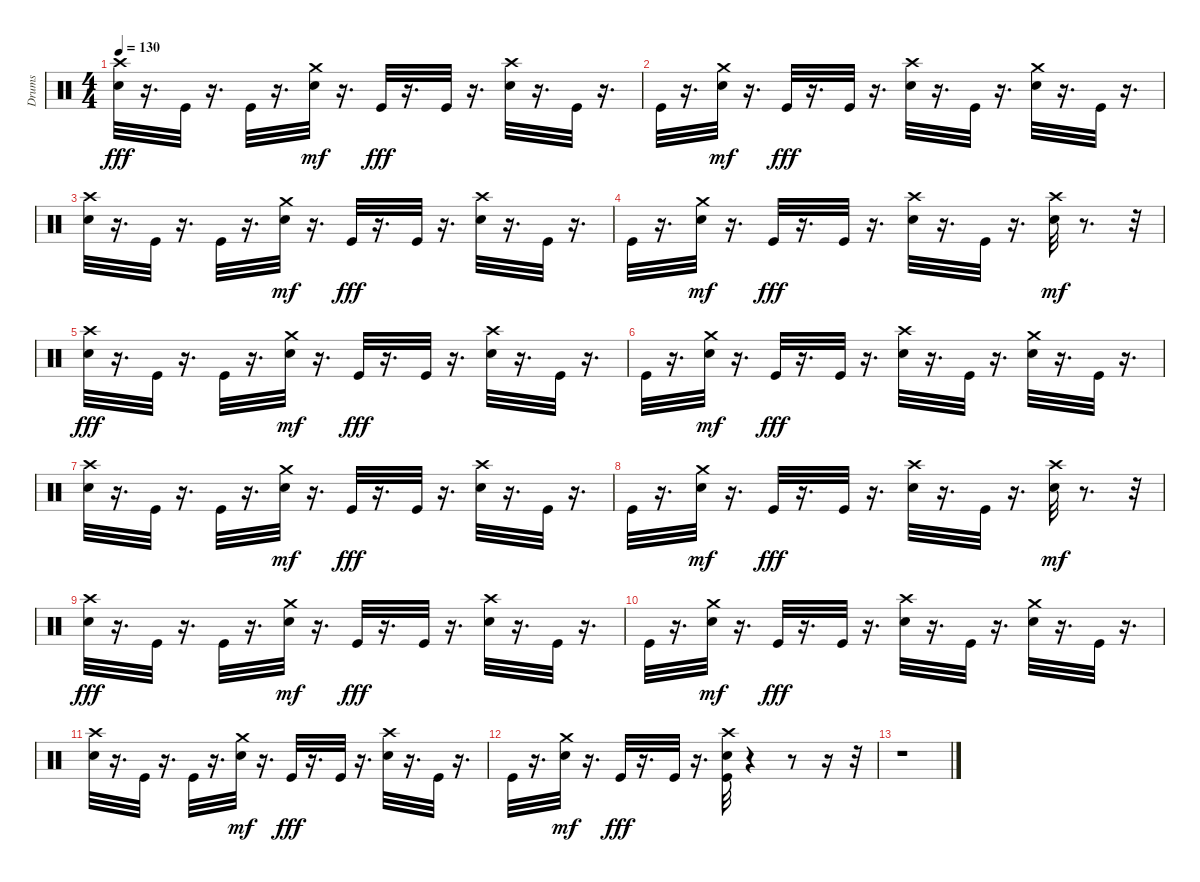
\track ("Drums" "Drums") {instrument percussion}
\staff {score}
\articulation defaults
\ts (4 4)
\tempo 130
\clef neutral
\ks c
("Crash high (hit)" "Electric Snare (hit)").32{dy fff} r.16{d} "Kick (hit)".32 r.16{d} "Kick (hit)".32 r.16{d} ("Electric Snare (hit)" "Crash medium (hit)").32{dy mf} r.16{d} "Kick (hit)".32{dy fff} r.16{d} "Kick (hit)".32 r.16{d} ("Crash high (hit)" "Electric Snare (hit)").32 r.16{d} "Kick (hit)".32 r.16{d} |
"Kick (hit)".32 r.16{d} ("Electric Snare (hit)" "Crash medium (hit)").32{dy mf} r.16{d} "Kick (hit)".32{dy fff} r.16{d} "Kick (hit)".32 r.16{d} ("Crash high (hit)" "Electric Snare (hit)").32 r.16{d} "Kick (hit)".32 r.16{d} ("Crash medium (hit)" "Electric Snare (hit)").32 r.16{d} "Kick (hit)".32 r.16{d} |
("Crash high (hit)" "Electric Snare (hit)").32 r.16{d} "Kick (hit)".32 r.16{d} "Kick (hit)".32 r.16{d} ("Electric Snare (hit)" "Crash medium (hit)").32{dy mf} r.16{d} "Kick (hit)".32{dy fff} r.16{d} "Kick (hit)".32 r.16{d} ("Crash high (hit)" "Electric Snare (hit)").32 r.16{d} "Kick (hit)".32 r.16{d} |
"Kick (hit)".32 r.16{d} ("Electric Snare (hit)" "Crash medium (hit)").32{dy mf} r.16{d} "Kick (hit)".32{dy fff} r.16{d} "Kick (hit)".32 r.16{d} ("Crash high (hit)" "Electric Snare (hit)").32 r.16{d} "Kick (hit)".32 r.16{d} ("Electric Snare (hit)" "Crash high (hit)").32{dy mf} r.8{d} r.32 |
("Crash high (hit)" "Electric Snare (hit)").32{dy fff} r.16{d} "Kick (hit)".32 r.16{d} "Kick (hit)".32 r.16{d} ("Electric Snare (hit)" "Crash medium (hit)").32{dy mf} r.16{d} "Kick (hit)".32{dy fff} r.16{d} "Kick (hit)".32 r.16{d} ("Crash high (hit)" "Electric Snare (hit)").32 r.16{d} "Kick (hit)".32 r.16{d} |
"Kick (hit)".32 r.16{d} ("Electric Snare (hit)" "Crash medium (hit)").32{dy mf} r.16{d} "Kick (hit)".32{dy fff} r.16{d} "Kick (hit)".32 r.16{d} ("Crash high (hit)" "Electric Snare (hit)").32 r.16{d} "Kick (hit)".32 r.16{d} ("Crash medium (hit)" "Electric Snare (hit)").32 r.16{d} "Kick (hit)".32 r.16{d} |
("Crash high (hit)" "Electric Snare (hit)").32 r.16{d} "Kick (hit)".32 r.16{d} "Kick (hit)".32 r.16{d} ("Electric Snare (hit)" "Crash medium (hit)").32{dy mf} r.16{d} "Kick (hit)".32{dy fff} r.16{d} "Kick (hit)".32 r.16{d} ("Crash high (hit)" "Electric Snare (hit)").32 r.16{d} "Kick (hit)".32 r.16{d} |
"Kick (hit)".32 r.16{d} ("Electric Snare (hit)" "Crash medium (hit)").32{dy mf} r.16{d} "Kick (hit)".32{dy fff} r.16{d} "Kick (hit)".32 r.16{d} ("Crash high (hit)" "Electric Snare (hit)").32 r.16{d} "Kick (hit)".32 r.16{d} ("Electric Snare (hit)" "Crash high (hit)").32{dy mf} r.8{d} r.32 |
("Crash high (hit)" "Electric Snare (hit)").32{dy fff} r.16{d} "Kick (hit)".32 r.16{d} "Kick (hit)".32 r.16{d} ("Electric Snare (hit)" "Crash medium (hit)").32{dy mf} r.16{d} "Kick (hit)".32{dy fff} r.16{d} "Kick (hit)".32 r.16{d} ("Crash high (hit)" "Electric Snare (hit)").32 r.16{d} "Kick (hit)".32 r.16{d} |
"Kick (hit)".32 r.16{d} ("Electric Snare (hit)" "Crash medium (hit)").32{dy mf} r.16{d} "Kick (hit)".32{dy fff} r.16{d} "Kick (hit)".32 r.16{d} ("Crash high (hit)" "Electric Snare (hit)").32 r.16{d} "Kick (hit)".32 r.16{d} ("Crash medium (hit)" "Electric Snare (hit)").32 r.16{d} "Kick (hit)".32 r.16{d} |
("Crash high (hit)" "Electric Snare (hit)").32 r.16{d} "Kick (hit)".32 r.16{d} "Kick (hit)".32 r.16{d} ("Electric Snare (hit)" "Crash medium (hit)").32{dy mf} r.16{d} "Kick (hit)".32{dy fff} r.16{d} "Kick (hit)".32 r.16{d} ("Crash high (hit)" "Electric Snare (hit)").32 r.16{d} "Kick (hit)".32 r.16{d} |
"Kick (hit)".32 r.16{d} ("Electric Snare (hit)" "Crash medium (hit)").32{dy mf} r.16{d} "Kick (hit)".32{dy fff} r.16{d} "Kick (hit)".32 r.16{d} ("Kick (hit)" "Crash high (hit)" "Electric Snare (hit)").32 r.4 r.8 r.16 r.32 |
r.1
